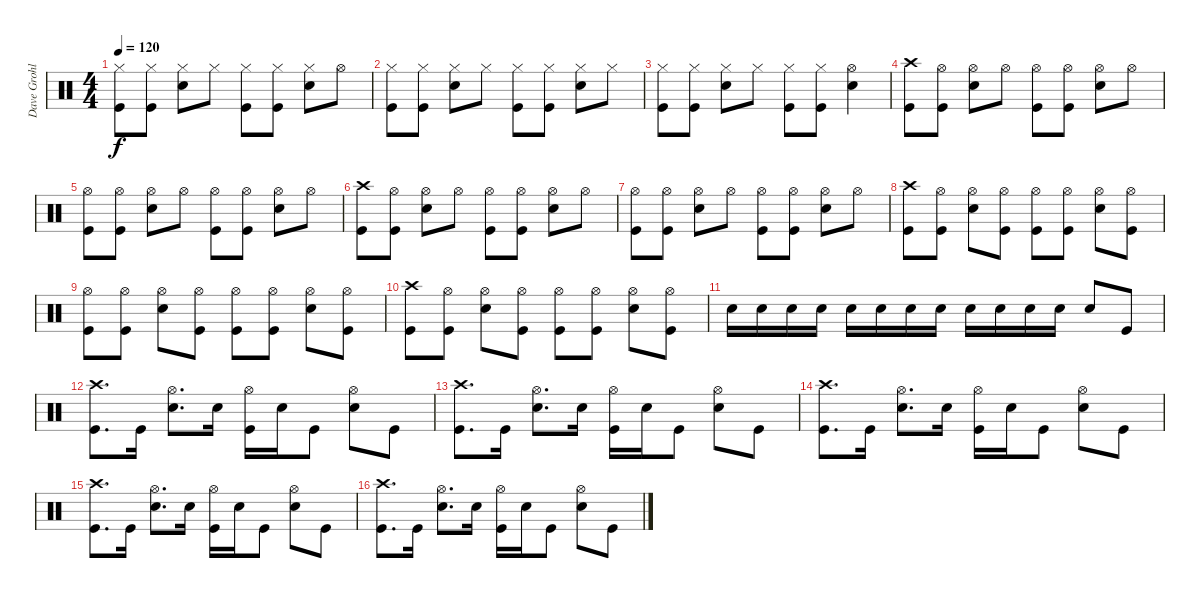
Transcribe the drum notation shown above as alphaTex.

\track ("Dave Grohl - Drums" "Dave Grohl") {instrument percussion}
\staff {score}
\articulation defaults
\ts (4 4)
\tempo 120
\clef neutral
\ks c
("Hi-Hat (closed)" "Kick (hit)").8{dy f} ("Hi-Hat (closed)" "Kick (hit)").8 ("Hi-Hat (closed)" "Snare (hit) 2").8 "Hi-Hat (closed)".8 ("Hi-Hat (closed)" "Kick (hit)").8 ("Hi-Hat (closed)" "Kick (hit)").8 ("Hi-Hat (closed)" "Snare (hit) 2").8 "Hi-Hat (open)".8 |
("Hi-Hat (closed)" "Kick (hit)").8 ("Hi-Hat (closed)" "Kick (hit)").8 ("Hi-Hat (closed)" "Snare (hit) 2").8 "Hi-Hat (closed)".8 ("Hi-Hat (closed)" "Kick (hit)").8 ("Hi-Hat (closed)" "Kick (hit)").8 ("Hi-Hat (closed)" "Snare (hit) 2").8 "Hi-Hat (closed)".8 |
("Hi-Hat (closed)" "Kick (hit)").8 ("Hi-Hat (closed)" "Kick (hit)").8 ("Hi-Hat (closed)" "Snare (hit) 2").8 "Hi-Hat (closed)".8 ("Hi-Hat (closed)" "Kick (hit)").8 ("Hi-Hat (closed)" "Kick (hit)").8 ("Hi-Hat (open)" "Snare (hit) 2").4 |
("Crash high (hit)" "Kick (hit)").8 ("Hi-Hat (open)" "Kick (hit)").8 ("Hi-Hat (open)" "Snare (hit) 2").8 "Hi-Hat (open)".8 ("Hi-Hat (open)" "Kick (hit)").8 ("Hi-Hat (open)" "Kick (hit)").8 ("Hi-Hat (open)" "Snare (hit) 2").8 "Hi-Hat (open)".8 |
("Hi-Hat (open)" "Kick (hit)").8 ("Hi-Hat (open)" "Kick (hit)").8 ("Hi-Hat (open)" "Snare (hit) 2").8 "Hi-Hat (open)".8 ("Hi-Hat (open)" "Kick (hit)").8 ("Hi-Hat (open)" "Kick (hit)").8 ("Hi-Hat (open)" "Snare (hit) 2").8 "Hi-Hat (open)".8 |
("Crash high (hit)" "Kick (hit)").8 ("Hi-Hat (open)" "Kick (hit)").8 ("Hi-Hat (open)" "Snare (hit) 2").8 "Hi-Hat (open)".8 ("Hi-Hat (open)" "Kick (hit)").8 ("Hi-Hat (open)" "Kick (hit)").8 ("Hi-Hat (open)" "Snare (hit) 2").8 "Hi-Hat (open)".8 |
("Hi-Hat (open)" "Kick (hit)").8 ("Hi-Hat (open)" "Kick (hit)").8 ("Hi-Hat (open)" "Snare (hit) 2").8 "Hi-Hat (open)".8 ("Hi-Hat (open)" "Kick (hit)").8 ("Hi-Hat (open)" "Kick (hit)").8 ("Hi-Hat (open)" "Snare (hit) 2").8 "Hi-Hat (open)".8 |
("Crash high (hit)" "Kick (hit)").8 ("Hi-Hat (open)" "Kick (hit)").8 ("Hi-Hat (open)" "Snare (hit) 2").8 ("Hi-Hat (open)" "Kick (hit)").8 ("Hi-Hat (open)" "Kick (hit)").8 ("Hi-Hat (open)" "Kick (hit)").8 ("Hi-Hat (open)" "Snare (hit) 2").8 ("Hi-Hat (open)" "Kick (hit)").8 |
("Hi-Hat (open)" "Kick (hit)").8 ("Hi-Hat (open)" "Kick (hit)").8 ("Hi-Hat (open)" "Snare (hit) 2").8 ("Hi-Hat (open)" "Kick (hit)").8 ("Hi-Hat (open)" "Kick (hit)").8 ("Hi-Hat (open)" "Kick (hit)").8 ("Hi-Hat (open)" "Snare (hit) 2").8 ("Hi-Hat (open)" "Kick (hit)").8 |
("Crash high (hit)" "Kick (hit)").8 ("Hi-Hat (open)" "Kick (hit)").8 ("Hi-Hat (open)" "Snare (hit) 2").8 ("Hi-Hat (open)" "Kick (hit)").8 ("Hi-Hat (open)" "Kick (hit)").8 ("Hi-Hat (open)" "Kick (hit)").8 ("Hi-Hat (open)" "Snare (hit) 2").8 ("Hi-Hat (open)" "Kick (hit)").8 |
"Snare (hit) 2".16 "Snare (hit) 2".16 "Snare (hit) 2".16 "Snare (hit) 2".16 "Snare (hit) 2".16 "Snare (hit) 2".16 "Snare (hit) 2".16 "Snare (hit) 2".16 "Snare (hit) 2".16 "Snare (hit) 2".16 "Snare (hit) 2".16 "Snare (hit) 2".16 "Snare (hit) 2".8 "Kick (hit)".8 |
("Crash high (hit)" "Kick (hit)").8{d} "Kick (hit)".16 ("Hi-Hat (open)" "Snare (hit) 2").8{d} "Snare (hit) 2".16 ("Hi-Hat (open)" "Kick (hit)").16 "Snare (hit) 2".16 "Kick (hit)".8 ("Hi-Hat (open)" "Snare (hit) 2").8 "Kick (hit)".8 |
("Crash high (hit)" "Kick (hit)").8{d} "Kick (hit)".16 ("Hi-Hat (open)" "Snare (hit) 2").8{d} "Snare (hit) 2".16 ("Hi-Hat (open)" "Kick (hit)").16 "Snare (hit) 2".16 "Kick (hit)".8 ("Hi-Hat (open)" "Snare (hit) 2").8 "Kick (hit)".8 |
("Crash high (hit)" "Kick (hit)").8{d} "Kick (hit)".16 ("Hi-Hat (open)" "Snare (hit) 2").8{d} "Snare (hit) 2".16 ("Hi-Hat (open)" "Kick (hit)").16 "Snare (hit) 2".16 "Kick (hit)".8 ("Hi-Hat (open)" "Snare (hit) 2").8 "Kick (hit)".8 |
("Crash high (hit)" "Kick (hit)").8{d} "Kick (hit)".16 ("Hi-Hat (open)" "Snare (hit) 2").8{d} "Snare (hit) 2".16 ("Hi-Hat (open)" "Kick (hit)").16 "Snare (hit) 2".16 "Kick (hit)".8 ("Hi-Hat (open)" "Snare (hit) 2").8 "Kick (hit)".8 |
("Crash high (hit)" "Kick (hit)").8{d} "Kick (hit)".16 ("Hi-Hat (open)" "Snare (hit) 2").8{d} "Snare (hit) 2".16 ("Hi-Hat (open)" "Kick (hit)").16 "Snare (hit) 2".16 "Kick (hit)".8 ("Hi-Hat (open)" "Snare (hit) 2").8 "Kick (hit)".8
